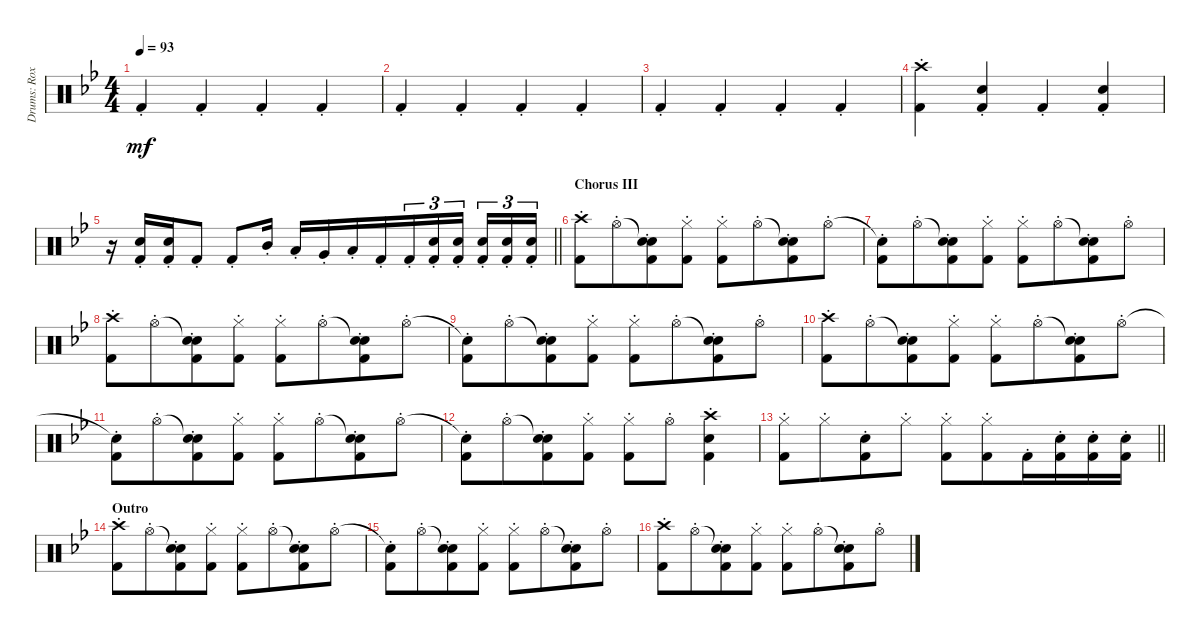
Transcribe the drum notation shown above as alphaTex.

\track ("Drums: Roxy" "Drums: Rox") {instrument percussion}
\staff {score}
\articulation defaults
\ts (4 4)
\tempo 93
\clef neutral
\ks bb "Kick (hit) 2"{st}.4{dy mf} "Kick (hit) 2"{st}.4 "Kick (hit) 2"{st}.4 "Kick (hit) 2"{st}.4
|
"Kick (hit) 2"{st}.4 "Kick (hit) 2"{st}.4 "Kick (hit) 2"{st}.4 "Kick (hit) 2"{st}.4 |
"Kick (hit) 2"{st}.4 "Kick (hit) 2"{st}.4 "Kick (hit) 2"{st}.4 "Kick (hit) 2"{st}.4 |
("Crash high (hit)"{st} "Kick (hit) 2"{st}).4 ("Snare (hit) 2"{st} "Kick (hit) 2"{st}).4 "Kick (hit) 2"{st}.4 ("Snare (hit) 2"{st} "Kick (hit) 2"{st}).4 |
\barLineRight lightlight
r.16{beam merge} ("Snare (hit) 2"{st} "Kick (hit) 2"{st}).16{beam merge} ("Snare (hit) 2"{st} "Kick (hit) 2"{st}).16 "Kick (hit) 2"{st}.8 "Kick (hit) 2"{st}.8{beam merge} "Mid Tom (hit)"{st}.16 "Low Tom (hit)"{st}.16{beam merge} "Very Low Tom (hit)"{st}.16 "Low Floor Tom (hit)"{st}.16 "Kick (hit) 2"{st}.16{beam merge} "Kick (hit) 2"{st}.16{tu (3 2) beam merge} ("Snare (hit) 2"{st} "Kick (hit) 2"{st}).16{tu (3 2) beam merge} ("Snare (hit) 2"{st} "Kick (hit) 2"{st}).16{tu (3 2) beam splitsecondary} ("Snare (hit) 2"{st} "Kick (hit) 2"{st}).16{tu (3 2) beam merge} ("Snare (hit) 2"{st} "Kick (hit) 2"{st}).16{tu (3 2) beam merge} ("Snare (hit) 2"{st} "Kick (hit) 2"{st}).16{tu (3 2)} |
\section ("" "Chorus III")
("Crash high (hit)"{st} "Kick (hit) 2"{st}).8 "Hi-Hat (open)"{st}.8{beam merge} ("Snare (hit)"{t} "Snare (hit) 2"{st} "Kick (hit) 2"{st}).8 ("Hi-Hat (closed)"{st} "Kick (hit) 2"{st}).8{beam split} ("Hi-Hat (closed)"{st} "Kick (hit) 2"{st}).8 "Hi-Hat (open)"{st}.8{beam merge} ("Snare (hit)"{t} "Snare (hit) 2"{st} "Kick (hit) 2"{st}).8 "Hi-Hat (open)"{st}.8 |
("Snare (hit)"{t} "Kick (hit) 2"{st}).8 "Hi-Hat (open)"{st}.8{beam merge} ("Snare (hit)"{t} "Snare (hit) 2"{st} "Kick (hit) 2"{st}).8 ("Hi-Hat (closed)"{st} "Kick (hit) 2"{st}).8{beam split} ("Hi-Hat (closed)"{st} "Kick (hit) 2"{st}).8 "Hi-Hat (open)"{st}.8{beam merge} ("Snare (hit)"{t} "Snare (hit) 2"{st} "Kick (hit) 2"{st}).8 "Hi-Hat (open)"{st}.8 |
("Crash high (hit)"{st} "Kick (hit) 2"{st}).8 "Hi-Hat (open)"{st}.8{beam merge} ("Snare (hit)"{t} "Snare (hit) 2"{st} "Kick (hit) 2"{st}).8 ("Hi-Hat (closed)"{st} "Kick (hit) 2"{st}).8{beam split} ("Hi-Hat (closed)"{st} "Kick (hit) 2"{st}).8 "Hi-Hat (open)"{st}.8{beam merge} ("Snare (hit)"{t} "Snare (hit) 2"{st} "Kick (hit) 2"{st}).8 "Hi-Hat (open)"{st}.8 |
("Snare (hit)"{t} "Kick (hit) 2"{st}).8 "Hi-Hat (open)"{st}.8{beam merge} ("Snare (hit)"{t} "Snare (hit) 2"{st} "Kick (hit) 2"{st}).8 ("Hi-Hat (closed)"{st} "Kick (hit) 2"{st}).8{beam split} ("Hi-Hat (closed)"{st} "Kick (hit) 2"{st}).8 "Hi-Hat (open)"{st}.8{beam merge} ("Snare (hit)"{t} "Snare (hit) 2"{st} "Kick (hit) 2"{st}).8 "Hi-Hat (open)"{st}.8 |
("Crash high (hit)"{st} "Kick (hit) 2"{st}).8 "Hi-Hat (open)"{st}.8{beam merge} ("Snare (hit)"{t} "Snare (hit) 2"{st} "Kick (hit) 2"{st}).8 ("Hi-Hat (closed)"{st} "Kick (hit) 2"{st}).8{beam split} ("Hi-Hat (closed)"{st} "Kick (hit) 2"{st}).8 "Hi-Hat (open)"{st}.8{beam merge} ("Snare (hit)"{t} "Snare (hit) 2"{st} "Kick (hit) 2"{st}).8 "Hi-Hat (open)"{st}.8 |
("Snare (hit)"{t} "Kick (hit) 2"{st}).8 "Hi-Hat (open)"{st}.8{beam merge} ("Snare (hit)"{t} "Snare (hit) 2"{st} "Kick (hit) 2"{st}).8 ("Hi-Hat (closed)"{st} "Kick (hit) 2"{st}).8{beam split} ("Hi-Hat (closed)"{st} "Kick (hit) 2"{st}).8 "Hi-Hat (open)"{st}.8{beam merge} ("Snare (hit)"{t} "Snare (hit) 2"{st} "Kick (hit) 2"{st}).8 "Hi-Hat (open)"{st}.8 |
("Snare (hit)"{t} "Kick (hit) 2"{st}).8 "Hi-Hat (open)"{st}.8{beam merge} ("Snare (hit)"{t} "Snare (hit) 2"{st} "Kick (hit) 2"{st}).8 ("Hi-Hat (closed)"{st} "Kick (hit) 2"{st}).8{beam split} ("Hi-Hat (closed)"{st} "Kick (hit) 2"{st}).8 "Hi-Hat (open)"{st}.8{beam merge} ("Crash high (hit)"{st} "Snare (hit) 2"{st} "Kick (hit) 2"{st}).4 |
\barLineRight lightlight
("Hi-Hat (closed)"{st} "Kick (hit) 2"{st}).8 "Hi-Hat (closed)"{st}.8{beam merge} ("Snare (hit) 2"{st} "Kick (hit) 2"{st}).8 "Hi-Hat (closed)"{st}.8{beam split} ("Hi-Hat (closed)"{st} "Kick (hit) 2"{st}).8 ("Hi-Hat (closed)"{st} "Kick (hit) 2"{st}).8{beam merge} "Kick (hit) 2"{st}.16{beam merge} ("Snare (hit) 2"{st} "Kick (hit) 2"{st}).16{beam merge} ("Snare (hit) 2"{st} "Kick (hit) 2"{st}).16{beam merge} ("Snare (hit) 2"{st} "Kick (hit) 2"{st}).16 |
\section ("" "Outro")
("Crash high (hit)"{st} "Kick (hit) 2"{st}).8 "Hi-Hat (open)"{st}.8{beam merge} ("Snare (hit)"{t} "Snare (hit) 2"{st} "Kick (hit) 2"{st}).8 ("Hi-Hat (closed)"{st} "Kick (hit) 2"{st}).8{beam split} ("Hi-Hat (closed)"{st} "Kick (hit) 2"{st}).8 "Hi-Hat (open)"{st}.8{beam merge} ("Snare (hit)"{t} "Snare (hit) 2"{st} "Kick (hit) 2"{st}).8 "Hi-Hat (open)"{st}.8 |
("Snare (hit)"{t} "Kick (hit) 2"{st}).8 "Hi-Hat (open)"{st}.8{beam merge} ("Snare (hit)"{t} "Snare (hit) 2"{st} "Kick (hit) 2"{st}).8 ("Hi-Hat (closed)"{st} "Kick (hit) 2"{st}).8{beam split} ("Hi-Hat (closed)"{st} "Kick (hit) 2"{st}).8 "Hi-Hat (open)"{st}.8{beam merge} ("Snare (hit)"{t} "Snare (hit) 2"{st} "Kick (hit) 2"{st}).8 "Hi-Hat (open)"{st}.8 |
("Crash high (hit)"{st} "Kick (hit) 2"{st}).8 "Hi-Hat (open)"{st}.8{beam merge} ("Snare (hit)"{t} "Snare (hit) 2"{st} "Kick (hit) 2"{st}).8 ("Hi-Hat (closed)"{st} "Kick (hit) 2"{st}).8{beam split} ("Hi-Hat (closed)"{st} "Kick (hit) 2"{st}).8 "Hi-Hat (open)"{st}.8{beam merge} ("Snare (hit)"{t} "Snare (hit) 2"{st} "Kick (hit) 2"{st}).8 "Hi-Hat (open)"{st}.8
